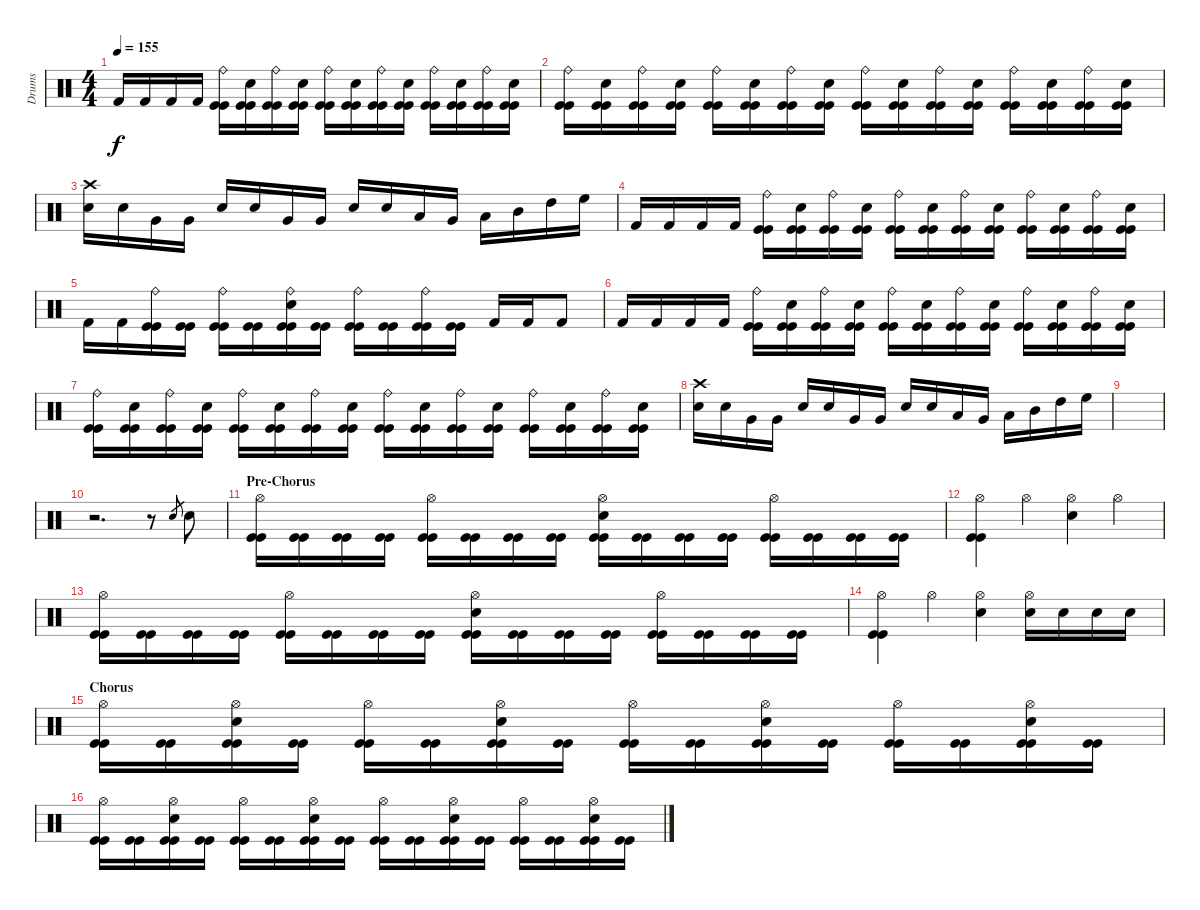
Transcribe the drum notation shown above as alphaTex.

\track ("Drums" "Drums") {instrument percussion}
\staff {score}
\articulation defaults
\ts (4 4)
\tempo 155
\clef neutral
\ks c "Kick (hit) 2".16{dy f} "Kick (hit) 2".16 "Kick (hit) 2".16 "Kick (hit) 2".16
("Ride (bell)" "Kick (hit)" "Kick (hit)").16 ("Electric Snare (hit)" "Kick (hit)" "Kick (hit)").16 ("Ride (bell)" "Kick (hit)" "Kick (hit)").16 ("Electric Snare (hit)" "Kick (hit)" "Kick (hit)").16 ("Ride (bell)" "Kick (hit)" "Kick (hit)").16 ("Electric Snare (hit)" "Kick (hit)" "Kick (hit)").16 ("Ride (bell)" "Kick (hit)" "Kick (hit)").16 ("Electric Snare (hit)" "Kick (hit)" "Kick (hit)").16 ("Ride (bell)" "Kick (hit)" "Kick (hit)").16 ("Electric Snare (hit)" "Kick (hit)" "Kick (hit)").16 ("Ride (bell)" "Kick (hit)" "Kick (hit)").16 ("Electric Snare (hit)" "Kick (hit)" "Kick (hit)").16 |
("Ride (bell)" "Kick (hit)" "Kick (hit)").16 ("Electric Snare (hit)" "Kick (hit)" "Kick (hit)").16 ("Ride (bell)" "Kick (hit)" "Kick (hit)").16 ("Electric Snare (hit)" "Kick (hit)" "Kick (hit)").16 ("Ride (bell)" "Kick (hit)" "Kick (hit)").16 ("Electric Snare (hit)" "Kick (hit)" "Kick (hit)").16 ("Ride (bell)" "Kick (hit)" "Kick (hit)").16 ("Electric Snare (hit)" "Kick (hit)" "Kick (hit)").16 ("Ride (bell)" "Kick (hit)" "Kick (hit)").16 ("Electric Snare (hit)" "Kick (hit)" "Kick (hit)").16 ("Ride (bell)" "Kick (hit)" "Kick (hit)").16 ("Electric Snare (hit)" "Kick (hit)" "Kick (hit)").16 ("Ride (bell)" "Kick (hit)" "Kick (hit)").16 ("Electric Snare (hit)" "Kick (hit)" "Kick (hit)").16 ("Ride (bell)" "Kick (hit)" "Kick (hit)").16 ("Electric Snare (hit)" "Kick (hit)" "Kick (hit)").16 |
("Crash high (hit)" "Electric Snare (hit)").16 "Electric Snare (hit)".16 "Very Low Tom (hit)".16 "Very Low Tom (hit)".16 "Electric Snare (hit)".16 "Electric Snare (hit)".16 "Very Low Tom (hit)".16 "Very Low Tom (hit)".16 "Electric Snare (hit)".16 "Electric Snare (hit)".16 "Low Floor Tom (hit)".16 "Very Low Tom (hit)".16 "Low Tom (hit)".16 "Mid Tom (hit)".16 "High Tom (hit)".16 "High Floor Tom (hit)".16 |
"Kick (hit) 2".16 "Kick (hit) 2".16 "Kick (hit) 2".16 "Kick (hit) 2".16 ("Ride (bell)" "Kick (hit)" "Kick (hit)").16 ("Electric Snare (hit)" "Kick (hit)" "Kick (hit)").16 ("Ride (bell)" "Kick (hit)" "Kick (hit)").16 ("Electric Snare (hit)" "Kick (hit)" "Kick (hit)").16 ("Ride (bell)" "Kick (hit)" "Kick (hit)").16 ("Electric Snare (hit)" "Kick (hit)" "Kick (hit)").16 ("Ride (bell)" "Kick (hit)" "Kick (hit)").16 ("Electric Snare (hit)" "Kick (hit)" "Kick (hit)").16 ("Ride (bell)" "Kick (hit)" "Kick (hit)").16 ("Electric Snare (hit)" "Kick (hit)" "Kick (hit)").16 ("Ride (bell)" "Kick (hit)" "Kick (hit)").16 ("Electric Snare (hit)" "Kick (hit)" "Kick (hit)").16 |
"Kick (hit) 2".16 "Kick (hit) 2".16 ("Ride (bell)" "Kick (hit)" "Kick (hit)").16 ("Kick (hit)" "Kick (hit)").16 ("Ride (bell)" "Kick (hit)" "Kick (hit)").16 ("Kick (hit)" "Kick (hit)").16 ("Ride (bell)" "Electric Snare (hit)" "Kick (hit)" "Kick (hit)").16 ("Kick (hit)" "Kick (hit)").16 ("Ride (bell)" "Kick (hit)" "Kick (hit)").16 ("Kick (hit)" "Kick (hit)").16 ("Ride (bell)" "Kick (hit)" "Kick (hit)").16 ("Kick (hit)" "Kick (hit)").16 "Kick (hit) 2".16 "Kick (hit) 2".16 "Kick (hit) 2".8 |
"Kick (hit) 2".16 "Kick (hit) 2".16 "Kick (hit) 2".16 "Kick (hit) 2".16 ("Ride (bell)" "Kick (hit)" "Kick (hit)").16 ("Electric Snare (hit)" "Kick (hit)" "Kick (hit)").16 ("Ride (bell)" "Kick (hit)" "Kick (hit)").16 ("Electric Snare (hit)" "Kick (hit)" "Kick (hit)").16 ("Ride (bell)" "Kick (hit)" "Kick (hit)").16 ("Electric Snare (hit)" "Kick (hit)" "Kick (hit)").16 ("Ride (bell)" "Kick (hit)" "Kick (hit)").16 ("Electric Snare (hit)" "Kick (hit)" "Kick (hit)").16 ("Ride (bell)" "Kick (hit)" "Kick (hit)").16 ("Electric Snare (hit)" "Kick (hit)" "Kick (hit)").16 ("Ride (bell)" "Kick (hit)" "Kick (hit)").16 ("Electric Snare (hit)" "Kick (hit)" "Kick (hit)").16 |
("Ride (bell)" "Kick (hit)" "Kick (hit)").16 ("Electric Snare (hit)" "Kick (hit)" "Kick (hit)").16 ("Ride (bell)" "Kick (hit)" "Kick (hit)").16 ("Electric Snare (hit)" "Kick (hit)" "Kick (hit)").16 ("Ride (bell)" "Kick (hit)" "Kick (hit)").16 ("Electric Snare (hit)" "Kick (hit)" "Kick (hit)").16 ("Ride (bell)" "Kick (hit)" "Kick (hit)").16 ("Electric Snare (hit)" "Kick (hit)" "Kick (hit)").16 ("Ride (bell)" "Kick (hit)" "Kick (hit)").16 ("Electric Snare (hit)" "Kick (hit)" "Kick (hit)").16 ("Ride (bell)" "Kick (hit)" "Kick (hit)").16 ("Electric Snare (hit)" "Kick (hit)" "Kick (hit)").16 ("Ride (bell)" "Kick (hit)" "Kick (hit)").16 ("Electric Snare (hit)" "Kick (hit)" "Kick (hit)").16 ("Ride (bell)" "Kick (hit)" "Kick (hit)").16 ("Electric Snare (hit)" "Kick (hit)" "Kick (hit)").16 |
("Crash high (hit)" "Electric Snare (hit)").16 "Electric Snare (hit)".16 "Very Low Tom (hit)".16 "Very Low Tom (hit)".16 "Electric Snare (hit)".16 "Electric Snare (hit)".16 "Very Low Tom (hit)".16 "Very Low Tom (hit)".16 "Electric Snare (hit)".16 "Electric Snare (hit)".16 "Low Floor Tom (hit)".16 "Very Low Tom (hit)".16 "Low Tom (hit)".16 "Mid Tom (hit)".16 "High Tom (hit)".16 "High Floor Tom (hit)".16 |
|
r.2{d} r.8 "Snare (hit) 2".8{gr} "Snare (hit) 2".8 |
\section ("" "Pre-Chorus")
("Hi-Hat (open)" "Kick (hit)" "Kick (hit)").16 ("Kick (hit)" "Kick (hit)").16 ("Kick (hit)" "Kick (hit)").16 ("Kick (hit)" "Kick (hit)").16 ("Hi-Hat (open)" "Kick (hit)" "Kick (hit)").16 ("Kick (hit)" "Kick (hit)").16 ("Kick (hit)" "Kick (hit)").16 ("Kick (hit)" "Kick (hit)").16 ("Hi-Hat (open)" "Electric Snare (hit)" "Kick (hit)" "Kick (hit)").16 ("Kick (hit)" "Kick (hit)").16 ("Kick (hit)" "Kick (hit)").16 ("Kick (hit)" "Kick (hit)").16 ("Hi-Hat (open)" "Kick (hit)" "Kick (hit)").16 ("Kick (hit)" "Kick (hit)").16 ("Kick (hit)" "Kick (hit)").16 ("Kick (hit)" "Kick (hit)").16 |
("Hi-Hat (open)" "Kick (hit)" "Kick (hit)").4 "Hi-Hat (open)".4 ("Hi-Hat (open)" "Electric Snare (hit)").4 "Hi-Hat (open)".4 |
("Hi-Hat (open)" "Kick (hit)" "Kick (hit)").16 ("Kick (hit)" "Kick (hit)").16 ("Kick (hit)" "Kick (hit)").16 ("Kick (hit)" "Kick (hit)").16 ("Hi-Hat (open)" "Kick (hit)" "Kick (hit)").16 ("Kick (hit)" "Kick (hit)").16 ("Kick (hit)" "Kick (hit)").16 ("Kick (hit)" "Kick (hit)").16 ("Hi-Hat (open)" "Electric Snare (hit)" "Kick (hit)" "Kick (hit)").16 ("Kick (hit)" "Kick (hit)").16 ("Kick (hit)" "Kick (hit)").16 ("Kick (hit)" "Kick (hit)").16 ("Hi-Hat (open)" "Kick (hit)" "Kick (hit)").16 ("Kick (hit)" "Kick (hit)").16 ("Kick (hit)" "Kick (hit)").16 ("Kick (hit)" "Kick (hit)").16 |
("Hi-Hat (open)" "Kick (hit)" "Kick (hit)").4 "Hi-Hat (open)".4 ("Hi-Hat (open)" "Electric Snare (hit)").4 ("Hi-Hat (open)" "Snare (hit) 2").16 "Snare (hit) 2".16 "Snare (hit) 2".16 "Snare (hit) 2".16 |
\section ("" "Chorus")
("Hi-Hat (open)" "Kick (hit)" "Kick (hit)").16 ("Kick (hit)" "Kick (hit)").16 ("Hi-Hat (open)" "Electric Snare (hit)" "Kick (hit)" "Kick (hit)").16 ("Kick (hit)" "Kick (hit)").16 ("Hi-Hat (open)" "Kick (hit)" "Kick (hit)").16 ("Kick (hit)" "Kick (hit)").16 ("Hi-Hat (open)" "Electric Snare (hit)" "Kick (hit)" "Kick (hit)").16 ("Kick (hit)" "Kick (hit)").16 ("Hi-Hat (open)" "Kick (hit)" "Kick (hit)").16 ("Kick (hit)" "Kick (hit)").16 ("Hi-Hat (open)" "Electric Snare (hit)" "Kick (hit)" "Kick (hit)").16 ("Kick (hit)" "Kick (hit)").16 ("Hi-Hat (open)" "Kick (hit)" "Kick (hit)").16 ("Kick (hit)" "Kick (hit)").16 ("Hi-Hat (open)" "Electric Snare (hit)" "Kick (hit)" "Kick (hit)").16 ("Kick (hit)" "Kick (hit)").16 |
("Hi-Hat (open)" "Kick (hit)" "Kick (hit)").16 ("Kick (hit)" "Kick (hit)").16 ("Hi-Hat (open)" "Electric Snare (hit)" "Kick (hit)" "Kick (hit)").16 ("Kick (hit)" "Kick (hit)").16 ("Hi-Hat (open)" "Kick (hit)" "Kick (hit)").16 ("Kick (hit)" "Kick (hit)").16 ("Hi-Hat (open)" "Electric Snare (hit)" "Kick (hit)" "Kick (hit)").16 ("Kick (hit)" "Kick (hit)").16 ("Hi-Hat (open)" "Kick (hit)" "Kick (hit)").16 ("Kick (hit)" "Kick (hit)").16 ("Hi-Hat (open)" "Electric Snare (hit)" "Kick (hit)" "Kick (hit)").16 ("Kick (hit)" "Kick (hit)").16 ("Hi-Hat (open)" "Kick (hit)" "Kick (hit)").16 ("Kick (hit)" "Kick (hit)").16 ("Hi-Hat (open)" "Electric Snare (hit)" "Kick (hit)" "Kick (hit)").16 ("Kick (hit)" "Kick (hit)").16
